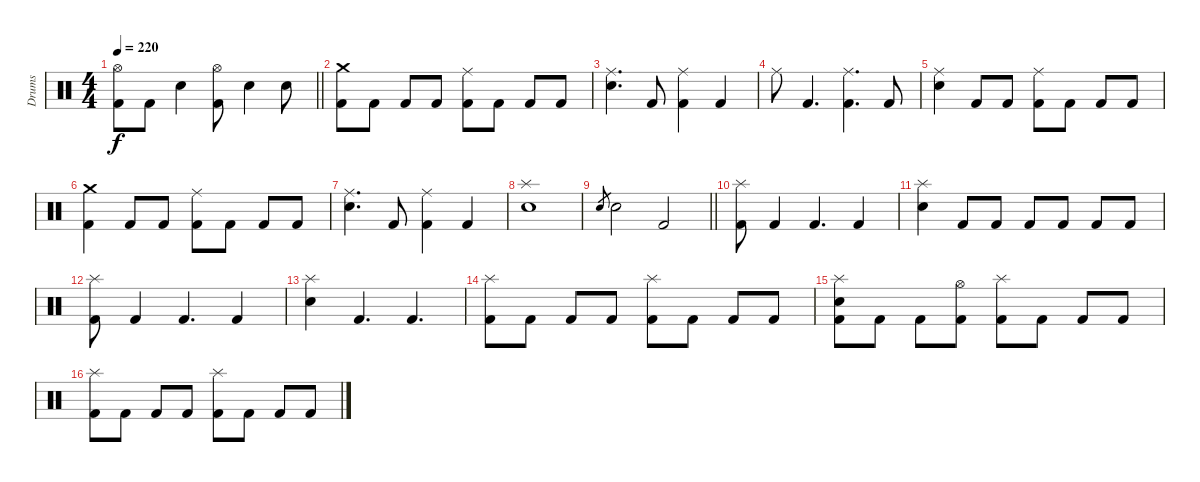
\track ("Drums" "Drums") {instrument percussion}
\staff {score}
\articulation defaults
\ts (4 4)
\tempo 220
\clef neutral
\barLineRight lightlight
\ks c
("Hi-Hat (open)" "Kick (hit) 2").8{dy f} "Kick (hit) 2".8 "Electric Snare (hit)".4 ("Hi-Hat (open)" "Kick (hit) 2").8 "Electric Snare (hit)".4 "Electric Snare (hit)".8 |
\section ("" "")
("Crash medium (hit)" "Kick (hit) 2").8 "Kick (hit) 2".8 "Kick (hit) 2".8 "Kick (hit) 2".8 ("Ride (middle)" "Kick (hit) 2").8 "Kick (hit) 2".8 "Kick (hit) 2".8 "Kick (hit) 2".8 |
("Ride (middle)" "Electric Snare (hit)").4{d} "Kick (hit) 2".8 ("Ride (middle)" "Kick (hit) 2").4 "Kick (hit) 2".4 |
"Ride (middle)".8 "Kick (hit) 2".4{d} ("Ride (middle)" "Kick (hit) 2").4{d} "Kick (hit) 2".8 |
("Ride (middle)" "Electric Snare (hit)").4 "Kick (hit) 2".8 "Kick (hit) 2".8 ("Ride (middle)" "Kick (hit) 2").8 "Kick (hit) 2".8 "Kick (hit) 2".8 "Kick (hit) 2".8 |
("Crash medium (hit)" "Kick (hit) 2").4 "Kick (hit) 2".8 "Kick (hit) 2".8 ("Ride (middle)" "Kick (hit) 2").8 "Kick (hit) 2".8 "Kick (hit) 2".8 "Kick (hit) 2".8 |
("Ride (middle)" "Electric Snare (hit)").4{d} "Kick (hit) 2".8 ("Ride (middle)" "Kick (hit) 2").4 "Kick (hit) 2".4 |
("Splash (hit)" "Electric Snare (hit)").1 |
\barLineRight lightlight "Electric Snare (hit)".8{gr} "Electric Snare (hit)".2 "Kick (hit) 2".2
|
\section ("" "")
("Splash (hit)" "Kick (hit) 2").8 "Kick (hit) 2".4 "Kick (hit) 2".4{d} "Kick (hit) 2".4 |
("Splash (hit)" "Electric Snare (hit)").4 "Kick (hit) 2".8 "Kick (hit) 2".8 "Kick (hit) 2".8 "Kick (hit) 2".8 "Kick (hit) 2".8 "Kick (hit) 2".8 |
("Splash (hit)" "Kick (hit) 2").8 "Kick (hit) 2".4 "Kick (hit) 2".4{d} "Kick (hit) 2".4 |
("Splash (hit)" "Electric Snare (hit)").4 "Kick (hit) 2".4{d} "Kick (hit) 2".4{d} |
("Splash (hit)" "Kick (hit) 2").8 "Kick (hit) 2".8 "Kick (hit) 2".8 "Kick (hit) 2".8 ("Splash (hit)" "Kick (hit) 2").8 "Kick (hit) 2".8 "Kick (hit) 2".8 "Kick (hit) 2".8 |
("Splash (hit)" "Electric Snare (hit)" "Kick (hit) 2").8 "Kick (hit) 2".8 "Kick (hit) 2".8 ("Hi-Hat (open)" "Kick (hit) 2").8 ("Splash (hit)" "Kick (hit) 2").8 "Kick (hit) 2".8 "Kick (hit) 2".8 "Kick (hit) 2".8 |
("Splash (hit)" "Kick (hit) 2").8 "Kick (hit) 2".8 "Kick (hit) 2".8 "Kick (hit) 2".8 ("Splash (hit)" "Kick (hit) 2").8 "Kick (hit) 2".8 "Kick (hit) 2".8 "Kick (hit) 2".8
